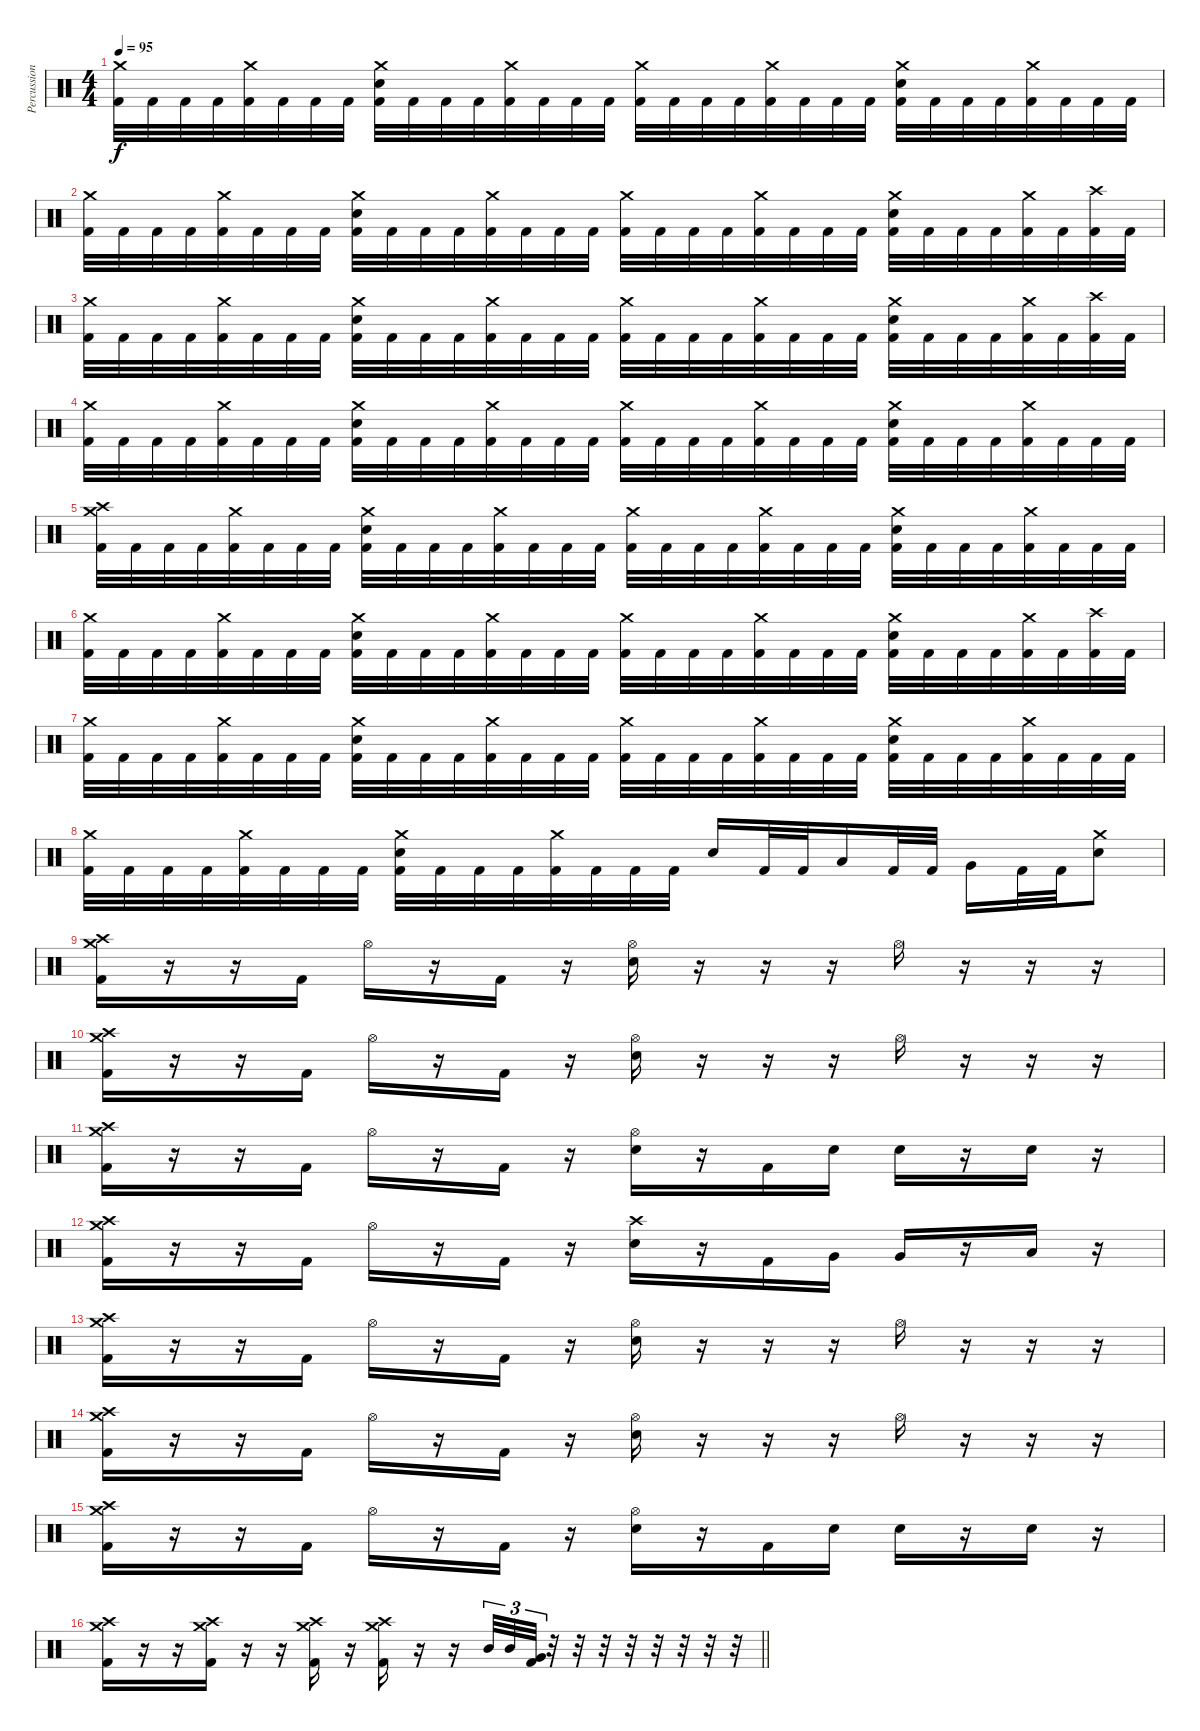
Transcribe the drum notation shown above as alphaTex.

\track ("Percussion" "Percussion") {instrument percussion}
\staff {score}
\articulation defaults
\ts (4 4)
\tempo 95
\clef neutral
\ks c
("Crash medium (hit)" "Kick (hit) 2").32{dy f} "Kick (hit) 2".32 "Kick (hit) 2".32 "Kick (hit) 2".32 ("Crash medium (hit)" "Kick (hit) 2").32 "Kick (hit) 2".32 "Kick (hit) 2".32 "Kick (hit) 2".32 ("Crash medium (hit)" "Snare (hit) 2" "Kick (hit) 2").32 "Kick (hit) 2".32 "Kick (hit) 2".32 "Kick (hit) 2".32 ("Crash medium (hit)" "Kick (hit) 2").32 "Kick (hit) 2".32 "Kick (hit) 2".32 "Kick (hit) 2".32 ("Crash medium (hit)" "Kick (hit) 2").32 "Kick (hit) 2".32 "Kick (hit) 2".32 "Kick (hit) 2".32 ("Crash medium (hit)" "Kick (hit) 2").32 "Kick (hit) 2".32 "Kick (hit) 2".32 "Kick (hit) 2".32 ("Crash medium (hit)" "Snare (hit) 2" "Kick (hit) 2").32 "Kick (hit) 2".32 "Kick (hit) 2".32 "Kick (hit) 2".32 ("Crash medium (hit)" "Kick (hit) 2").32 "Kick (hit) 2".32 "Kick (hit) 2".32 "Kick (hit) 2".32 |
("Crash medium (hit)" "Kick (hit) 2").32 "Kick (hit) 2".32 "Kick (hit) 2".32 "Kick (hit) 2".32 ("Crash medium (hit)" "Kick (hit) 2").32 "Kick (hit) 2".32 "Kick (hit) 2".32 "Kick (hit) 2".32 ("Crash medium (hit)" "Snare (hit) 2" "Kick (hit) 2").32 "Kick (hit) 2".32 "Kick (hit) 2".32 "Kick (hit) 2".32 ("Crash medium (hit)" "Kick (hit) 2").32 "Kick (hit) 2".32 "Kick (hit) 2".32 "Kick (hit) 2".32 ("Crash medium (hit)" "Kick (hit) 2").32 "Kick (hit) 2".32 "Kick (hit) 2".32 "Kick (hit) 2".32 ("Crash medium (hit)" "Kick (hit) 2").32 "Kick (hit) 2".32 "Kick (hit) 2".32 "Kick (hit) 2".32 ("Crash medium (hit)" "Snare (hit) 2" "Kick (hit) 2").32 "Kick (hit) 2".32 "Kick (hit) 2".32 "Kick (hit) 2".32 ("Crash medium (hit)" "Kick (hit) 2").32 "Kick (hit) 2".32 ("Crash high (hit)" "Kick (hit) 2").32 "Kick (hit) 2".32 |
("Crash medium (hit)" "Kick (hit) 2").32 "Kick (hit) 2".32 "Kick (hit) 2".32 "Kick (hit) 2".32 ("Crash medium (hit)" "Kick (hit) 2").32 "Kick (hit) 2".32 "Kick (hit) 2".32 "Kick (hit) 2".32 ("Crash medium (hit)" "Snare (hit) 2" "Kick (hit) 2").32 "Kick (hit) 2".32 "Kick (hit) 2".32 "Kick (hit) 2".32 ("Crash medium (hit)" "Kick (hit) 2").32 "Kick (hit) 2".32 "Kick (hit) 2".32 "Kick (hit) 2".32 ("Crash medium (hit)" "Kick (hit) 2").32 "Kick (hit) 2".32 "Kick (hit) 2".32 "Kick (hit) 2".32 ("Crash medium (hit)" "Kick (hit) 2").32 "Kick (hit) 2".32 "Kick (hit) 2".32 "Kick (hit) 2".32 ("Crash medium (hit)" "Snare (hit) 2" "Kick (hit) 2").32 "Kick (hit) 2".32 "Kick (hit) 2".32 "Kick (hit) 2".32 ("Crash medium (hit)" "Kick (hit) 2").32 "Kick (hit) 2".32 ("Crash high (hit)" "Kick (hit) 2").32 "Kick (hit) 2".32 |
("Crash medium (hit)" "Kick (hit) 2").32 "Kick (hit) 2".32 "Kick (hit) 2".32 "Kick (hit) 2".32 ("Crash medium (hit)" "Kick (hit) 2").32 "Kick (hit) 2".32 "Kick (hit) 2".32 "Kick (hit) 2".32 ("Crash medium (hit)" "Snare (hit) 2" "Kick (hit) 2").32 "Kick (hit) 2".32 "Kick (hit) 2".32 "Kick (hit) 2".32 ("Crash medium (hit)" "Kick (hit) 2").32 "Kick (hit) 2".32 "Kick (hit) 2".32 "Kick (hit) 2".32 ("Crash medium (hit)" "Kick (hit) 2").32 "Kick (hit) 2".32 "Kick (hit) 2".32 "Kick (hit) 2".32 ("Crash medium (hit)" "Kick (hit) 2").32 "Kick (hit) 2".32 "Kick (hit) 2".32 "Kick (hit) 2".32 ("Crash medium (hit)" "Snare (hit) 2" "Kick (hit) 2").32 "Kick (hit) 2".32 "Kick (hit) 2".32 "Kick (hit) 2".32 ("Crash medium (hit)" "Kick (hit) 2").32 "Kick (hit) 2".32 "Kick (hit) 2".32 "Kick (hit) 2".32 |
("Crash medium (hit)" "Crash high (hit)" "Kick (hit) 2").32 "Kick (hit) 2".32 "Kick (hit) 2".32 "Kick (hit) 2".32 ("Crash medium (hit)" "Kick (hit) 2").32 "Kick (hit) 2".32 "Kick (hit) 2".32 "Kick (hit) 2".32 ("Crash medium (hit)" "Snare (hit) 2" "Kick (hit) 2").32 "Kick (hit) 2".32 "Kick (hit) 2".32 "Kick (hit) 2".32 ("Crash medium (hit)" "Kick (hit) 2").32 "Kick (hit) 2".32 "Kick (hit) 2".32 "Kick (hit) 2".32 ("Crash medium (hit)" "Kick (hit) 2").32 "Kick (hit) 2".32 "Kick (hit) 2".32 "Kick (hit) 2".32 ("Crash medium (hit)" "Kick (hit) 2").32 "Kick (hit) 2".32 "Kick (hit) 2".32 "Kick (hit) 2".32 ("Crash medium (hit)" "Snare (hit) 2" "Kick (hit) 2").32 "Kick (hit) 2".32 "Kick (hit) 2".32 "Kick (hit) 2".32 ("Crash medium (hit)" "Kick (hit) 2").32 "Kick (hit) 2".32 "Kick (hit) 2".32 "Kick (hit) 2".32 |
("Crash medium (hit)" "Kick (hit) 2").32 "Kick (hit) 2".32 "Kick (hit) 2".32 "Kick (hit) 2".32 ("Crash medium (hit)" "Kick (hit) 2").32 "Kick (hit) 2".32 "Kick (hit) 2".32 "Kick (hit) 2".32 ("Crash medium (hit)" "Snare (hit) 2" "Kick (hit) 2").32 "Kick (hit) 2".32 "Kick (hit) 2".32 "Kick (hit) 2".32 ("Crash medium (hit)" "Kick (hit) 2").32 "Kick (hit) 2".32 "Kick (hit) 2".32 "Kick (hit) 2".32 ("Crash medium (hit)" "Kick (hit) 2").32 "Kick (hit) 2".32 "Kick (hit) 2".32 "Kick (hit) 2".32 ("Crash medium (hit)" "Kick (hit) 2").32 "Kick (hit) 2".32 "Kick (hit) 2".32 "Kick (hit) 2".32 ("Crash medium (hit)" "Snare (hit) 2" "Kick (hit) 2").32 "Kick (hit) 2".32 "Kick (hit) 2".32 "Kick (hit) 2".32 ("Crash medium (hit)" "Kick (hit) 2").32 "Kick (hit) 2".32 ("Crash high (hit)" "Kick (hit) 2").32 "Kick (hit) 2".32 |
("Crash medium (hit)" "Kick (hit) 2").32 "Kick (hit) 2".32 "Kick (hit) 2".32 "Kick (hit) 2".32 ("Crash medium (hit)" "Kick (hit) 2").32 "Kick (hit) 2".32 "Kick (hit) 2".32 "Kick (hit) 2".32 ("Crash medium (hit)" "Snare (hit) 2" "Kick (hit) 2").32 "Kick (hit) 2".32 "Kick (hit) 2".32 "Kick (hit) 2".32 ("Crash medium (hit)" "Kick (hit) 2").32 "Kick (hit) 2".32 "Kick (hit) 2".32 "Kick (hit) 2".32 ("Crash medium (hit)" "Kick (hit) 2").32 "Kick (hit) 2".32 "Kick (hit) 2".32 "Kick (hit) 2".32 ("Crash medium (hit)" "Kick (hit) 2").32 "Kick (hit) 2".32 "Kick (hit) 2".32 "Kick (hit) 2".32 ("Crash medium (hit)" "Snare (hit) 2" "Kick (hit) 2").32 "Kick (hit) 2".32 "Kick (hit) 2".32 "Kick (hit) 2".32 ("Crash medium (hit)" "Kick (hit) 2").32 "Kick (hit) 2".32 "Kick (hit) 2".32 "Kick (hit) 2".32 |
("Crash medium (hit)" "Kick (hit) 2").32 "Kick (hit) 2".32 "Kick (hit) 2".32 "Kick (hit) 2".32 ("Crash medium (hit)" "Kick (hit) 2").32 "Kick (hit) 2".32 "Kick (hit) 2".32 "Kick (hit) 2".32 ("Crash medium (hit)" "Snare (hit) 2" "Kick (hit) 2").32 "Kick (hit) 2".32 "Kick (hit) 2".32 "Kick (hit) 2".32 ("Crash medium (hit)" "Kick (hit) 2").32 "Kick (hit) 2".32 "Kick (hit) 2".32 "Kick (hit) 2".32 "Snare (hit) 2".16 "Kick (hit) 2".32 "Kick (hit) 2".32 "Low Tom (hit)".16 "Kick (hit) 2".32 "Kick (hit) 2".32 "Very Low Tom (hit)".16 "Kick (hit) 2".32 "Kick (hit) 2".32 ("Crash medium (hit)" "Snare (hit) 2").8 |
("Crash high (hit)" "Crash medium (hit)" "Kick (hit) 2").16 r.16 r.16 "Kick (hit) 2".16 "Hi-Hat (open)".16 r.16 "Kick (hit) 2".16 r.16 ("Hi-Hat (open)" "Snare (hit) 2").16 r.16 r.16 r.16 "Hi-Hat (open)".16 r.16 r.16 r.16 |
("Crash high (hit)" "Crash medium (hit)" "Kick (hit) 2").16 r.16 r.16 "Kick (hit) 2".16 "Hi-Hat (open)".16 r.16 "Kick (hit) 2".16 r.16 ("Hi-Hat (open)" "Snare (hit) 2").16 r.16 r.16 r.16 "Hi-Hat (open)".16 r.16 r.16 r.16 |
("Crash high (hit)" "Crash medium (hit)" "Kick (hit) 2").16 r.16 r.16 "Kick (hit) 2".16 "Hi-Hat (open)".16 r.16 "Kick (hit) 2".16 r.16 ("Hi-Hat (open)" "Snare (hit) 2").16 r.16 "Kick (hit) 2".16 "Snare (hit) 2".16 "Snare (hit) 2".16 r.16 "Snare (hit) 2".16 r.16 |
("Crash high (hit)" "Crash medium (hit)" "Kick (hit) 2").16 r.16 r.16 "Kick (hit) 2".16 "Hi-Hat (open)".16 r.16 "Kick (hit) 2".16 r.16 ("Crash high (hit)" "Snare (hit) 2").16 r.16 "Kick (hit) 2".16 "Very Low Tom (hit)".16 "Very Low Tom (hit)".16 r.16 "Low Floor Tom (hit)".16 r.16 |
("Crash high (hit)" "Crash medium (hit)" "Kick (hit) 2").16 r.16 r.16 "Kick (hit) 2".16 "Hi-Hat (open)".16 r.16 "Kick (hit) 2".16 r.16 ("Hi-Hat (open)" "Snare (hit) 2").16 r.16 r.16 r.16 "Hi-Hat (open)".16 r.16 r.16 r.16 |
("Crash high (hit)" "Crash medium (hit)" "Kick (hit) 2").16 r.16 r.16 "Kick (hit) 2".16 "Hi-Hat (open)".16 r.16 "Kick (hit) 2".16 r.16 ("Hi-Hat (open)" "Snare (hit) 2").16 r.16 r.16 r.16 "Hi-Hat (open)".16 r.16 r.16 r.16 |
("Crash high (hit)" "Crash medium (hit)" "Kick (hit) 2").16 r.16 r.16 "Kick (hit) 2".16 "Hi-Hat (open)".16 r.16 "Kick (hit) 2".16 r.16 ("Hi-Hat (open)" "Snare (hit) 2").16 r.16 "Kick (hit) 2".16 "Snare (hit) 2".16 "Snare (hit) 2".16 r.16 "Snare (hit) 2".16 r.16 |
\barLineRight lightlight
("Crash high (hit)" "Crash medium (hit)" "Kick (hit) 2").16 r.16 r.16 ("Crash high (hit)" "Crash medium (hit)" "Kick (hit) 2").16 r.16 r.16 ("Crash high (hit)" "Crash medium (hit)" "Kick (hit) 2").16 r.16 ("Crash high (hit)" "Crash medium (hit)" "Kick (hit) 2").16 r.16 r.16 "Mid Tom (hit)".32{tu (3 2)} "Mid Tom (hit)".32{tu (3 2)} ("Very Low Tom (hit)" "Kick (hit) 2").32{tu (3 2)} r.32 r.32 r.32 r.32 r.32 r.32 r.32 r.32
